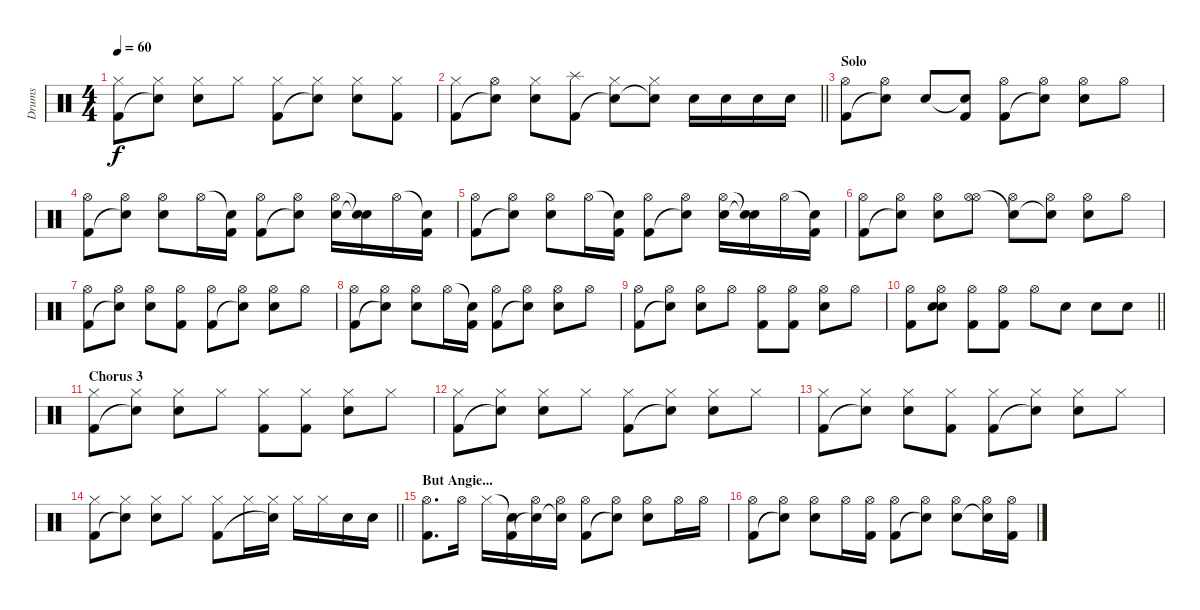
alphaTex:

\track ("Drums" "Drums") {instrument percussion}
\staff {score}
\articulation defaults
\ts (4 4)
\tempo 60
\clef neutral
\ks c
("Hi-Hat (closed)" "Kick (hit) 2").8{dy f} ("Hi-Hat (closed)" "Snare (hit)"{t}).8 ("Hi-Hat (closed)" "Snare (hit) 2").8 "Hi-Hat (closed)".8 ("Hi-Hat (closed)" "Kick (hit) 2").8 ("Hi-Hat (closed)" "Snare (hit)"{t}).8 ("Hi-Hat (closed)" "Snare (hit) 2").8 ("Hi-Hat (closed)" "Kick (hit) 2").8 |
\barLineRight lightlight
("Hi-Hat (closed)" "Kick (hit) 2").8 ("Hi-Hat (open)" "Snare (hit)"{t}).8 ("Hi-Hat (closed)" "Snare (hit) 2").8 ("Splash (hit)" "Kick (hit) 2").8 ("Hi-Hat (closed)" "Snare (hit)"{t}).8 ("Hi-Hat (closed)" "Snare (hit)"{t}).8 "Snare (hit) 2".16 "Snare (hit) 2".16 "Snare (hit) 2".16 "Snare (hit) 2".16 |
\section ("" "Solo")
("Hi-Hat (open)" "Kick (hit) 2").8 ("Hi-Hat (open)" "Snare (hit)"{t}).8 "Snare (hit) 2".8 ("Snare (hit)"{t} "Kick (hit) 2").8 ("Hi-Hat (open)" "Kick (hit) 2").8 ("Hi-Hat (open)" "Snare (hit)"{t}).8 ("Hi-Hat (open)" "Snare (hit) 2").8 "Hi-Hat (open)".8 |
("Hi-Hat (open)" "Kick (hit) 2").8 ("Hi-Hat (open)" "Snare (hit)"{t}).8 ("Hi-Hat (open)" "Snare (hit) 2").8 "Hi-Hat (open)".16 ("Snare (hit)"{t} "Kick (hit) 2").16 ("Hi-Hat (open)" "Kick (hit) 2").8 ("Hi-Hat (open)" "Snare (hit)"{t}).8 ("Hi-Hat (open)" "Snare (hit) 2").16 ("Snare (hit)"{t} "Snare (hit)"{t}).16 "Hi-Hat (open)".16 ("Snare (hit)"{t} "Kick (hit) 2").16 |
("Hi-Hat (open)" "Kick (hit) 2").8 ("Hi-Hat (open)" "Snare (hit)"{t}).8 ("Hi-Hat (open)" "Snare (hit) 2").8 "Hi-Hat (open)".16 ("Snare (hit)"{t} "Kick (hit) 2").16 ("Hi-Hat (open)" "Kick (hit) 2").8 ("Hi-Hat (open)" "Snare (hit)"{t}).8 ("Hi-Hat (open)" "Snare (hit) 2").16 ("Snare (hit)"{t} "Snare (hit)"{t}).16 "Hi-Hat (open)".16 ("Snare (hit)"{t} "Kick (hit) 2").16 |
("Hi-Hat (open)" "Kick (hit) 2").8 ("Hi-Hat (open)" "Snare (hit)"{t}).8 ("Hi-Hat (open)" "Snare (hit) 2").8 ("Hi-Hat (open)" "Hi-Hat (open)").8 ("Hi-Hat (open)" "Snare (hit)"{t}).8 ("Hi-Hat (open)" "Snare (hit)"{t}).8 ("Hi-Hat (open)" "Snare (hit) 2").8 "Hi-Hat (open)".8 |
("Hi-Hat (open)" "Kick (hit) 2").8 ("Hi-Hat (open)" "Snare (hit)"{t}).8 ("Hi-Hat (open)" "Snare (hit) 2").8 ("Hi-Hat (open)" "Kick (hit) 2").8 ("Hi-Hat (open)" "Kick (hit) 2").8 ("Hi-Hat (open)" "Snare (hit)"{t}).8 ("Hi-Hat (open)" "Snare (hit) 2").8 "Hi-Hat (open)".8 |
("Hi-Hat (open)" "Kick (hit) 2").8 ("Hi-Hat (open)" "Snare (hit)"{t}).8 ("Hi-Hat (open)" "Snare (hit) 2").8 "Hi-Hat (open)".16 ("Snare (hit)"{t} "Kick (hit) 2").16 ("Hi-Hat (open)" "Kick (hit) 2").8 ("Hi-Hat (open)" "Snare (hit)"{t}).8 ("Hi-Hat (open)" "Snare (hit) 2").8 "Hi-Hat (open)".8 |
("Hi-Hat (open)" "Kick (hit) 2").8 ("Hi-Hat (open)" "Snare (hit)"{t}).8 ("Hi-Hat (open)" "Snare (hit) 2").8 "Hi-Hat (open)".8 ("Hi-Hat (open)" "Kick (hit) 2").8 ("Hi-Hat (open)" "Kick (hit) 2").8 ("Hi-Hat (open)" "Snare (hit) 2").8 "Hi-Hat (open)".8 |
\barLineRight lightlight
("Hi-Hat (open)" "Kick (hit) 2").8 ("Hi-Hat (open)" "Snare (hit) 2" "Snare (hit)").8 ("Hi-Hat (open)" "Kick (hit) 2").8 ("Hi-Hat (open)" "Kick (hit) 2").8 "Hi-Hat (open)".8 "Snare (hit) 2".8 "Snare (hit) 2".8 "Snare (hit) 2".8 |
\section ("" "Chorus 3")
("Hi-Hat (closed)" "Kick (hit) 2").8 ("Hi-Hat (closed)" "Snare (hit)"{t}).8 ("Hi-Hat (closed)" "Snare (hit) 2").8 "Hi-Hat (closed)".8 ("Hi-Hat (closed)" "Kick (hit) 2").8 ("Hi-Hat (closed)" "Kick (hit) 2").8 ("Hi-Hat (closed)" "Snare (hit) 2").8 "Hi-Hat (closed)".8 |
("Hi-Hat (closed)" "Kick (hit) 2").8 ("Hi-Hat (closed)" "Snare (hit)"{t}).8 ("Hi-Hat (closed)" "Snare (hit) 2").8 "Hi-Hat (closed)".8 ("Hi-Hat (closed)" "Kick (hit) 2").8 ("Hi-Hat (closed)" "Snare (hit)"{t}).8 ("Hi-Hat (closed)" "Snare (hit) 2").8 "Hi-Hat (closed)".8 |
("Hi-Hat (closed)" "Kick (hit) 2").8 ("Hi-Hat (closed)" "Snare (hit)"{t}).8 ("Hi-Hat (closed)" "Snare (hit) 2").8 ("Hi-Hat (closed)" "Kick (hit) 2").8 ("Hi-Hat (closed)" "Kick (hit) 2").8 ("Hi-Hat (closed)" "Snare (hit)"{t}).8 ("Hi-Hat (closed)" "Snare (hit) 2").8 "Hi-Hat (closed)".8 |
\barLineRight lightlight
("Hi-Hat (closed)" "Kick (hit) 2").8 ("Hi-Hat (closed)" "Snare (hit)"{t}).8 ("Hi-Hat (closed)" "Snare (hit) 2").8 "Hi-Hat (closed)".8 ("Hi-Hat (closed)" "Kick (hit) 2").8 "Hi-Hat (closed)".16 ("Hi-Hat (closed)" "Snare (hit)"{t}).16 "Hi-Hat (closed)".16 "Hi-Hat (closed)".16 "Snare (hit) 2".16 "Snare (hit) 2".16 |
\section ("" "But Angie...")
("Hi-Hat (open)" "Kick (hit) 2").8{d} "Hi-Hat (open)".16 "Hi-Hat (closed)".16 ("Snare (hit)"{t} "Kick (hit) 2").16 ("Hi-Hat (open)" "Snare (hit)"{t}).16 ("Hi-Hat (open)" "Snare (hit)"{t}).16 ("Hi-Hat (open)" "Kick (hit) 2").8 ("Hi-Hat (open)" "Snare (hit)"{t}).8 ("Hi-Hat (open)" "Snare (hit) 2").8 "Hi-Hat (open)".16 "Hi-Hat (open)".16 |
("Hi-Hat (open)" "Kick (hit) 2").8 ("Hi-Hat (open)" "Snare (hit)"{t}).8 ("Hi-Hat (open)" "Snare (hit) 2").8 "Hi-Hat (open)".16 ("Hi-Hat (open)" "Kick (hit) 2").16 ("Hi-Hat (open)" "Kick (hit) 2").8 ("Hi-Hat (open)" "Snare (hit)"{t}).8 ("Hi-Hat (open)" "Snare (hit) 2").8 ("Hi-Hat (open)" "Snare (hit)"{t}).16 ("Hi-Hat (open)" "Kick (hit) 2").16
